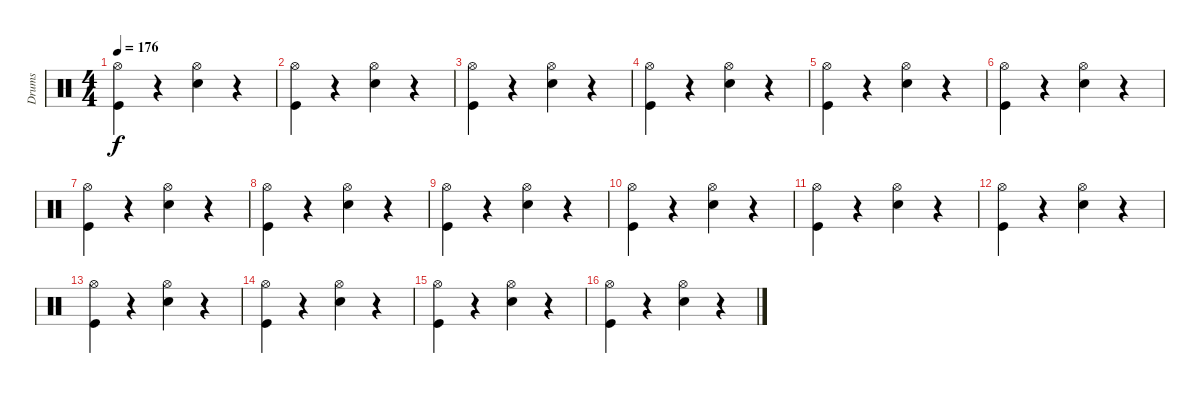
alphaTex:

\track ("Drums" "Drums") {instrument percussion}
\staff {score}
\articulation defaults
\ts (4 4)
\tempo 176
\clef neutral
\ks c
("Hi-Hat (open)" "Kick (hit)").4{dy f} r.4 ("Hi-Hat (open)" "Snare (hit) 2").4 r.4 |
("Hi-Hat (open)" "Kick (hit)").4 r.4 ("Hi-Hat (open)" "Electric Snare (hit)").4 r.4 |
("Hi-Hat (open)" "Kick (hit)").4 r.4 ("Hi-Hat (open)" "Snare (hit) 2").4 r.4 |
("Hi-Hat (open)" "Kick (hit)").4 r.4 ("Hi-Hat (open)" "Electric Snare (hit)").4 r.4 |
("Hi-Hat (open)" "Kick (hit)").4 r.4 ("Hi-Hat (open)" "Snare (hit) 2").4 r.4 |
("Hi-Hat (open)" "Kick (hit)").4 r.4 ("Hi-Hat (open)" "Electric Snare (hit)").4 r.4 |
("Hi-Hat (open)" "Kick (hit)").4 r.4 ("Hi-Hat (open)" "Snare (hit) 2").4 r.4 |
("Hi-Hat (open)" "Kick (hit)").4 r.4 ("Hi-Hat (open)" "Electric Snare (hit)").4 r.4 |
("Hi-Hat (open)" "Kick (hit)").4 r.4 ("Hi-Hat (open)" "Snare (hit) 2").4 r.4 |
("Hi-Hat (open)" "Kick (hit)").4 r.4 ("Hi-Hat (open)" "Electric Snare (hit)").4 r.4 |
("Hi-Hat (open)" "Kick (hit)").4 r.4 ("Hi-Hat (open)" "Snare (hit) 2").4 r.4 |
("Hi-Hat (open)" "Kick (hit)").4 r.4 ("Hi-Hat (open)" "Electric Snare (hit)").4 r.4 |
("Hi-Hat (open)" "Kick (hit)").4 r.4 ("Hi-Hat (open)" "Snare (hit) 2").4 r.4 |
("Hi-Hat (open)" "Kick (hit)").4 r.4 ("Hi-Hat (open)" "Electric Snare (hit)").4 r.4 |
("Hi-Hat (open)" "Kick (hit)").4 r.4 ("Hi-Hat (open)" "Snare (hit) 2").4 r.4 |
("Hi-Hat (open)" "Kick (hit)").4 r.4 ("Hi-Hat (open)" "Electric Snare (hit)").4 r.4
